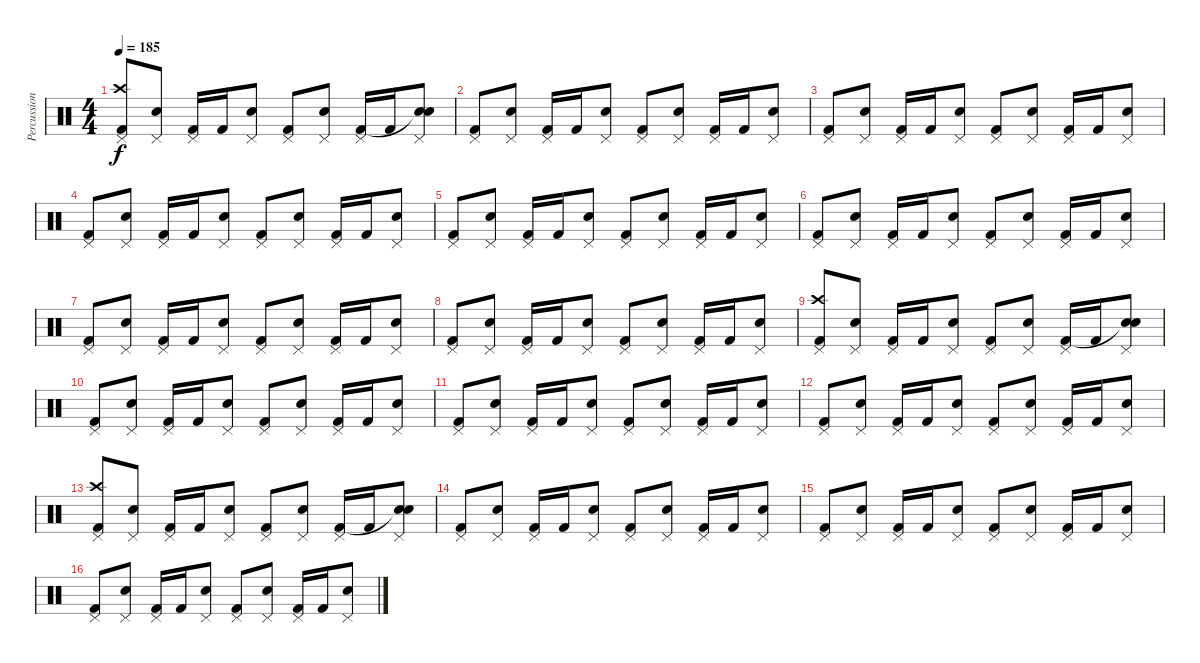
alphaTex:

\track ("Percussions" "Percussion") {instrument percussion}
\staff {score}
\articulation defaults
\ts (4 4)
\tempo 185
\clef neutral
\ks c
("Pedal Hi-Hat (hit)" "Crash high (hit)" "Kick (hit) 2").8{dy f} ("Pedal Hi-Hat (hit)" "Snare (hit) 2").8 ("Pedal Hi-Hat (hit)" "Kick (hit) 2").16 "Kick (hit) 2".16 ("Pedal Hi-Hat (hit)" "Snare (hit) 2").8 ("Pedal Hi-Hat (hit)" "Kick (hit) 2").8 ("Pedal Hi-Hat (hit)" "Snare (hit) 2").8 ("Pedal Hi-Hat (hit)" "Kick (hit) 2").16 "Kick (hit) 2".16 ("Pedal Hi-Hat (hit)" "Snare (hit)"{t} "Snare (hit) 2").8 |
("Pedal Hi-Hat (hit)" "Kick (hit) 2").8 ("Pedal Hi-Hat (hit)" "Snare (hit) 2").8 ("Pedal Hi-Hat (hit)" "Kick (hit) 2").16 "Kick (hit) 2".16 ("Pedal Hi-Hat (hit)" "Snare (hit) 2").8 ("Pedal Hi-Hat (hit)" "Kick (hit) 2").8 ("Pedal Hi-Hat (hit)" "Snare (hit) 2").8 ("Pedal Hi-Hat (hit)" "Kick (hit) 2").16 "Kick (hit) 2".16 ("Pedal Hi-Hat (hit)" "Snare (hit) 2").8 |
("Pedal Hi-Hat (hit)" "Kick (hit) 2").8 ("Pedal Hi-Hat (hit)" "Snare (hit) 2").8 ("Pedal Hi-Hat (hit)" "Kick (hit) 2").16 "Kick (hit) 2".16 ("Pedal Hi-Hat (hit)" "Snare (hit) 2").8 ("Pedal Hi-Hat (hit)" "Kick (hit) 2").8 ("Pedal Hi-Hat (hit)" "Snare (hit) 2").8 ("Pedal Hi-Hat (hit)" "Kick (hit) 2").16 "Kick (hit) 2".16 ("Pedal Hi-Hat (hit)" "Snare (hit) 2").8 |
("Pedal Hi-Hat (hit)" "Kick (hit) 2").8 ("Pedal Hi-Hat (hit)" "Snare (hit) 2").8 ("Pedal Hi-Hat (hit)" "Kick (hit) 2").16 "Kick (hit) 2".16 ("Pedal Hi-Hat (hit)" "Snare (hit) 2").8 ("Pedal Hi-Hat (hit)" "Kick (hit) 2").8 ("Pedal Hi-Hat (hit)" "Snare (hit) 2").8 ("Pedal Hi-Hat (hit)" "Kick (hit) 2").16 "Kick (hit) 2".16 ("Pedal Hi-Hat (hit)" "Snare (hit) 2").8 |
("Pedal Hi-Hat (hit)" "Kick (hit) 2").8 ("Pedal Hi-Hat (hit)" "Snare (hit) 2").8 ("Pedal Hi-Hat (hit)" "Kick (hit) 2").16 "Kick (hit) 2".16 ("Pedal Hi-Hat (hit)" "Snare (hit) 2").8 ("Pedal Hi-Hat (hit)" "Kick (hit) 2").8 ("Pedal Hi-Hat (hit)" "Snare (hit) 2").8 ("Pedal Hi-Hat (hit)" "Kick (hit) 2").16 "Kick (hit) 2".16 ("Pedal Hi-Hat (hit)" "Snare (hit) 2").8 |
("Pedal Hi-Hat (hit)" "Kick (hit) 2").8 ("Pedal Hi-Hat (hit)" "Snare (hit) 2").8 ("Pedal Hi-Hat (hit)" "Kick (hit) 2").16 "Kick (hit) 2".16 ("Pedal Hi-Hat (hit)" "Snare (hit) 2").8 ("Pedal Hi-Hat (hit)" "Kick (hit) 2").8 ("Pedal Hi-Hat (hit)" "Snare (hit) 2").8 ("Pedal Hi-Hat (hit)" "Kick (hit) 2").16 "Kick (hit) 2".16 ("Pedal Hi-Hat (hit)" "Snare (hit) 2").8 |
("Pedal Hi-Hat (hit)" "Kick (hit) 2").8 ("Pedal Hi-Hat (hit)" "Snare (hit) 2").8 ("Pedal Hi-Hat (hit)" "Kick (hit) 2").16 "Kick (hit) 2".16 ("Pedal Hi-Hat (hit)" "Snare (hit) 2").8 ("Pedal Hi-Hat (hit)" "Kick (hit) 2").8 ("Pedal Hi-Hat (hit)" "Snare (hit) 2").8 ("Pedal Hi-Hat (hit)" "Kick (hit) 2").16 "Kick (hit) 2".16 ("Pedal Hi-Hat (hit)" "Snare (hit) 2").8 |
("Pedal Hi-Hat (hit)" "Kick (hit) 2").8 ("Pedal Hi-Hat (hit)" "Snare (hit) 2").8 ("Pedal Hi-Hat (hit)" "Kick (hit) 2").16 "Kick (hit) 2".16 ("Pedal Hi-Hat (hit)" "Snare (hit) 2").8 ("Pedal Hi-Hat (hit)" "Kick (hit) 2").8 ("Pedal Hi-Hat (hit)" "Snare (hit) 2").8 ("Pedal Hi-Hat (hit)" "Kick (hit) 2").16 "Kick (hit) 2".16 ("Pedal Hi-Hat (hit)" "Snare (hit) 2").8 |
("Pedal Hi-Hat (hit)" "Crash high (hit)" "Kick (hit) 2").8 ("Pedal Hi-Hat (hit)" "Snare (hit) 2").8 ("Pedal Hi-Hat (hit)" "Kick (hit) 2").16 "Kick (hit) 2".16 ("Pedal Hi-Hat (hit)" "Snare (hit) 2").8 ("Pedal Hi-Hat (hit)" "Kick (hit) 2").8 ("Pedal Hi-Hat (hit)" "Snare (hit) 2").8 ("Pedal Hi-Hat (hit)" "Kick (hit) 2").16 "Kick (hit) 2".16 ("Pedal Hi-Hat (hit)" "Snare (hit)"{t} "Snare (hit) 2").8 |
("Pedal Hi-Hat (hit)" "Kick (hit) 2").8 ("Pedal Hi-Hat (hit)" "Snare (hit) 2").8 ("Pedal Hi-Hat (hit)" "Kick (hit) 2").16 "Kick (hit) 2".16 ("Pedal Hi-Hat (hit)" "Snare (hit) 2").8 ("Pedal Hi-Hat (hit)" "Kick (hit) 2").8 ("Pedal Hi-Hat (hit)" "Snare (hit) 2").8 ("Pedal Hi-Hat (hit)" "Kick (hit) 2").16 "Kick (hit) 2".16 ("Pedal Hi-Hat (hit)" "Snare (hit) 2").8 |
("Pedal Hi-Hat (hit)" "Kick (hit) 2").8 ("Pedal Hi-Hat (hit)" "Snare (hit) 2").8 ("Pedal Hi-Hat (hit)" "Kick (hit) 2").16 "Kick (hit) 2".16 ("Pedal Hi-Hat (hit)" "Snare (hit) 2").8 ("Pedal Hi-Hat (hit)" "Kick (hit) 2").8 ("Pedal Hi-Hat (hit)" "Snare (hit) 2").8 ("Pedal Hi-Hat (hit)" "Kick (hit) 2").16 "Kick (hit) 2".16 ("Pedal Hi-Hat (hit)" "Snare (hit) 2").8 |
("Pedal Hi-Hat (hit)" "Kick (hit) 2").8 ("Pedal Hi-Hat (hit)" "Snare (hit) 2").8 ("Pedal Hi-Hat (hit)" "Kick (hit) 2").16 "Kick (hit) 2".16 ("Pedal Hi-Hat (hit)" "Snare (hit) 2").8 ("Pedal Hi-Hat (hit)" "Kick (hit) 2").8 ("Pedal Hi-Hat (hit)" "Snare (hit) 2").8 ("Pedal Hi-Hat (hit)" "Kick (hit) 2").16 "Kick (hit) 2".16 ("Pedal Hi-Hat (hit)" "Snare (hit) 2").8 |
("Pedal Hi-Hat (hit)" "Crash high (hit)" "Kick (hit) 2").8 ("Pedal Hi-Hat (hit)" "Snare (hit) 2").8 ("Pedal Hi-Hat (hit)" "Kick (hit) 2").16 "Kick (hit) 2".16 ("Pedal Hi-Hat (hit)" "Snare (hit) 2").8 ("Pedal Hi-Hat (hit)" "Kick (hit) 2").8 ("Pedal Hi-Hat (hit)" "Snare (hit) 2").8 ("Pedal Hi-Hat (hit)" "Kick (hit) 2").16 "Kick (hit) 2".16 ("Pedal Hi-Hat (hit)" "Snare (hit)"{t} "Snare (hit) 2").8 |
("Pedal Hi-Hat (hit)" "Kick (hit) 2").8 ("Pedal Hi-Hat (hit)" "Snare (hit) 2").8 ("Pedal Hi-Hat (hit)" "Kick (hit) 2").16 "Kick (hit) 2".16 ("Pedal Hi-Hat (hit)" "Snare (hit) 2").8 ("Pedal Hi-Hat (hit)" "Kick (hit) 2").8 ("Pedal Hi-Hat (hit)" "Snare (hit) 2").8 ("Pedal Hi-Hat (hit)" "Kick (hit) 2").16 "Kick (hit) 2".16 ("Pedal Hi-Hat (hit)" "Snare (hit) 2").8 |
("Pedal Hi-Hat (hit)" "Kick (hit) 2").8 ("Pedal Hi-Hat (hit)" "Snare (hit) 2").8 ("Pedal Hi-Hat (hit)" "Kick (hit) 2").16 "Kick (hit) 2".16 ("Pedal Hi-Hat (hit)" "Snare (hit) 2").8 ("Pedal Hi-Hat (hit)" "Kick (hit) 2").8 ("Pedal Hi-Hat (hit)" "Snare (hit) 2").8 ("Pedal Hi-Hat (hit)" "Kick (hit) 2").16 "Kick (hit) 2".16 ("Pedal Hi-Hat (hit)" "Snare (hit) 2").8 |
("Pedal Hi-Hat (hit)" "Kick (hit) 2").8 ("Pedal Hi-Hat (hit)" "Snare (hit) 2").8 ("Pedal Hi-Hat (hit)" "Kick (hit) 2").16 "Kick (hit) 2".16 ("Pedal Hi-Hat (hit)" "Snare (hit) 2").8 ("Pedal Hi-Hat (hit)" "Kick (hit) 2").8 ("Pedal Hi-Hat (hit)" "Snare (hit) 2").8 ("Pedal Hi-Hat (hit)" "Kick (hit) 2").16 "Kick (hit) 2".16 ("Pedal Hi-Hat (hit)" "Snare (hit) 2").8
